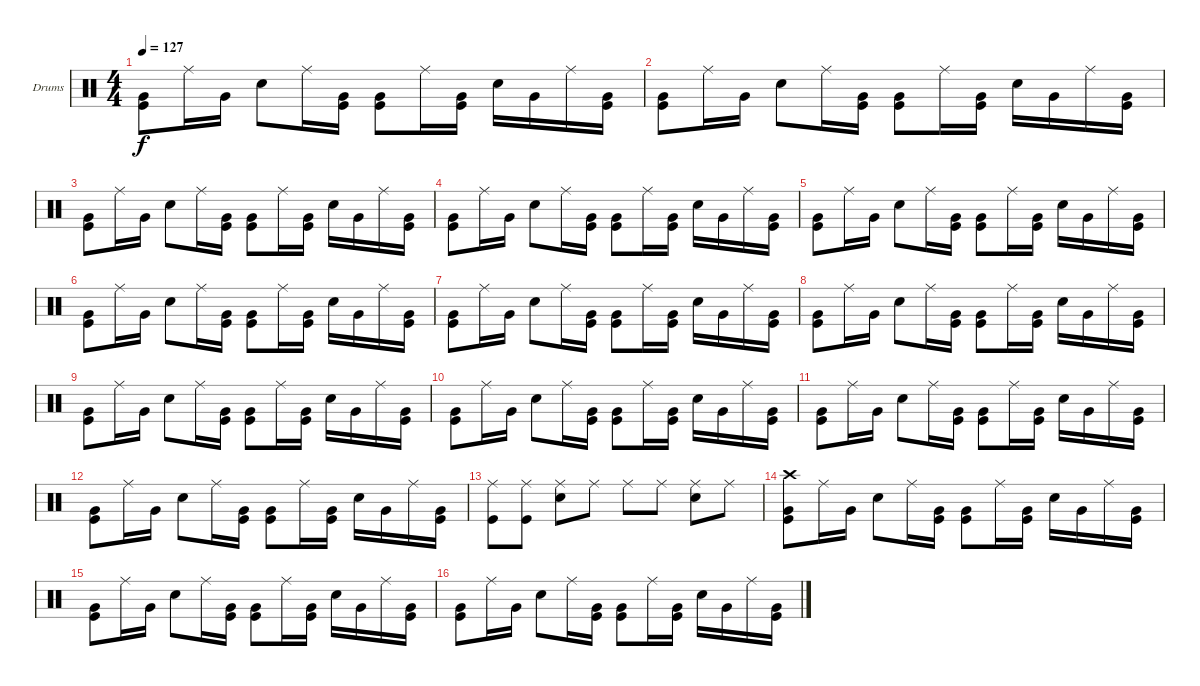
\bracketExtendMode groupsimilarinstruments
\firstSystemTrackNameOrientation horizontal
\otherSystemsTrackNameOrientation horizontal
\track ("Drumkit" "Drums") {instrument percussion}
\staff {score}
\articulation defaults
\ts (4 4)
\tempo 127
\clef neutral
\ks c
("Kick (hit)" "Very Low Tom (hit)").8{dy f} "Ride (middle)".16 "Very Low Tom (hit)".16 "Snare (hit) 2".8 "Ride (middle)".16 ("Kick (hit)" "Very Low Tom (hit)").16 ("Kick (hit)" "Very Low Tom (hit)").8 "Ride (middle)".16 ("Very Low Tom (hit)" "Kick (hit)").16 "Snare (hit) 2".16 "Very Low Tom (hit)".16 "Ride (middle)".16 ("Kick (hit)" "Very Low Tom (hit)").16 |
("Kick (hit)" "Very Low Tom (hit)").8 "Ride (middle)".16 "Very Low Tom (hit)".16 "Snare (hit) 2".8 "Ride (middle)".16 ("Kick (hit)" "Very Low Tom (hit)").16 ("Kick (hit)" "Very Low Tom (hit)").8 "Ride (middle)".16 ("Very Low Tom (hit)" "Kick (hit)").16 "Snare (hit) 2".16 "Very Low Tom (hit)".16 "Ride (middle)".16 ("Kick (hit)" "Very Low Tom (hit)").16 |
("Kick (hit)" "Very Low Tom (hit)").8 "Ride (middle)".16 "Very Low Tom (hit)".16 "Snare (hit) 2".8 "Ride (middle)".16 ("Kick (hit)" "Very Low Tom (hit)").16 ("Kick (hit)" "Very Low Tom (hit)").8 "Ride (middle)".16 ("Very Low Tom (hit)" "Kick (hit)").16 "Snare (hit) 2".16 "Very Low Tom (hit)".16 "Ride (middle)".16 ("Kick (hit)" "Very Low Tom (hit)").16 |
("Kick (hit)" "Very Low Tom (hit)").8 "Ride (middle)".16 "Very Low Tom (hit)".16 "Snare (hit) 2".8 "Ride (middle)".16 ("Kick (hit)" "Very Low Tom (hit)").16 ("Kick (hit)" "Very Low Tom (hit)").8 "Ride (middle)".16 ("Very Low Tom (hit)" "Kick (hit)").16 "Snare (hit) 2".16 "Very Low Tom (hit)".16 "Ride (middle)".16 ("Kick (hit)" "Very Low Tom (hit)").16 |
("Kick (hit)" "Very Low Tom (hit)").8 "Ride (middle)".16 "Very Low Tom (hit)".16 "Snare (hit) 2".8 "Ride (middle)".16 ("Kick (hit)" "Very Low Tom (hit)").16 ("Kick (hit)" "Very Low Tom (hit)").8 "Ride (middle)".16 ("Very Low Tom (hit)" "Kick (hit)").16 "Snare (hit) 2".16 "Very Low Tom (hit)".16 "Ride (middle)".16 ("Kick (hit)" "Very Low Tom (hit)").16 |
("Kick (hit)" "Very Low Tom (hit)").8 "Ride (middle)".16 "Very Low Tom (hit)".16 "Snare (hit) 2".8 "Ride (middle)".16 ("Kick (hit)" "Very Low Tom (hit)").16 ("Kick (hit)" "Very Low Tom (hit)").8 "Ride (middle)".16 ("Very Low Tom (hit)" "Kick (hit)").16 "Snare (hit) 2".16 "Very Low Tom (hit)".16 "Ride (middle)".16 ("Kick (hit)" "Very Low Tom (hit)").16 |
("Kick (hit)" "Very Low Tom (hit)").8 "Ride (middle)".16 "Very Low Tom (hit)".16 "Snare (hit) 2".8 "Ride (middle)".16 ("Kick (hit)" "Very Low Tom (hit)").16 ("Kick (hit)" "Very Low Tom (hit)").8 "Ride (middle)".16 ("Very Low Tom (hit)" "Kick (hit)").16 "Snare (hit) 2".16 "Very Low Tom (hit)".16 "Ride (middle)".16 ("Kick (hit)" "Very Low Tom (hit)").16 |
("Kick (hit)" "Very Low Tom (hit)").8 "Ride (middle)".16 "Very Low Tom (hit)".16 "Snare (hit) 2".8 "Ride (middle)".16 ("Kick (hit)" "Very Low Tom (hit)").16 ("Kick (hit)" "Very Low Tom (hit)").8 "Ride (middle)".16 ("Very Low Tom (hit)" "Kick (hit)").16 "Snare (hit) 2".16 "Very Low Tom (hit)".16 "Ride (middle)".16 ("Kick (hit)" "Very Low Tom (hit)").16 |
("Kick (hit)" "Very Low Tom (hit)").8 "Ride (middle)".16 "Very Low Tom (hit)".16 "Snare (hit) 2".8 "Ride (middle)".16 ("Kick (hit)" "Very Low Tom (hit)").16 ("Kick (hit)" "Very Low Tom (hit)").8 "Ride (middle)".16 ("Very Low Tom (hit)" "Kick (hit)").16 "Snare (hit) 2".16 "Very Low Tom (hit)".16 "Ride (middle)".16 ("Kick (hit)" "Very Low Tom (hit)").16 |
("Kick (hit)" "Very Low Tom (hit)").8 "Ride (middle)".16 "Very Low Tom (hit)".16 "Snare (hit) 2".8 "Ride (middle)".16 ("Kick (hit)" "Very Low Tom (hit)").16 ("Kick (hit)" "Very Low Tom (hit)").8 "Ride (middle)".16 ("Very Low Tom (hit)" "Kick (hit)").16 "Snare (hit) 2".16 "Very Low Tom (hit)".16 "Ride (middle)".16 ("Kick (hit)" "Very Low Tom (hit)").16 |
("Kick (hit)" "Very Low Tom (hit)").8 "Ride (middle)".16 "Very Low Tom (hit)".16 "Snare (hit) 2".8 "Ride (middle)".16 ("Kick (hit)" "Very Low Tom (hit)").16 ("Kick (hit)" "Very Low Tom (hit)").8 "Ride (middle)".16 ("Very Low Tom (hit)" "Kick (hit)").16 "Snare (hit) 2".16 "Very Low Tom (hit)".16 "Ride (middle)".16 ("Kick (hit)" "Very Low Tom (hit)").16 |
("Kick (hit)" "Very Low Tom (hit)").8 "Ride (middle)".16 "Very Low Tom (hit)".16 "Snare (hit) 2".8 "Ride (middle)".16 ("Kick (hit)" "Very Low Tom (hit)").16 ("Kick (hit)" "Very Low Tom (hit)").8 "Ride (middle)".16 ("Very Low Tom (hit)" "Kick (hit)").16 "Snare (hit) 2".16 "Very Low Tom (hit)".16 "Ride (middle)".16 ("Kick (hit)" "Very Low Tom (hit)").16 |
("Kick (hit)" "Ride (middle)").8 ("Ride (middle)" "Kick (hit)").8 ("Snare (hit) 2" "Ride (middle)").8 "Ride (middle)".8 "Ride (middle)".8 "Ride (middle)".8 ("Snare (hit) 2" "Ride (middle)").8 "Ride (middle)".8 |
("Kick (hit)" "Crash high (hit)" "Very Low Tom (hit)").8 "Ride (middle)".16 "Very Low Tom (hit)".16 "Snare (hit) 2".8 "Ride (middle)".16 ("Kick (hit)" "Very Low Tom (hit)").16 ("Kick (hit)" "Very Low Tom (hit)").8 "Ride (middle)".16 ("Kick (hit)" "Very Low Tom (hit)").16 "Snare (hit) 2".16 "Very Low Tom (hit)".16 "Ride (middle)".16 ("Kick (hit)" "Very Low Tom (hit)").16 |
("Kick (hit)" "Very Low Tom (hit)").8 "Ride (middle)".16 "Very Low Tom (hit)".16 "Snare (hit) 2".8 "Ride (middle)".16 ("Kick (hit)" "Very Low Tom (hit)").16 ("Kick (hit)" "Very Low Tom (hit)").8 "Ride (middle)".16 ("Very Low Tom (hit)" "Kick (hit)").16 "Snare (hit) 2".16 "Very Low Tom (hit)".16 "Ride (middle)".16 ("Kick (hit)" "Very Low Tom (hit)").16 |
("Kick (hit)" "Very Low Tom (hit)").8 "Ride (middle)".16 "Very Low Tom (hit)".16 "Snare (hit) 2".8 "Ride (middle)".16 ("Kick (hit)" "Very Low Tom (hit)").16 ("Kick (hit)" "Very Low Tom (hit)").8 "Ride (middle)".16 ("Very Low Tom (hit)" "Kick (hit)").16 "Snare (hit) 2".16 "Very Low Tom (hit)".16 "Ride (middle)".16 ("Kick (hit)" "Very Low Tom (hit)").16
